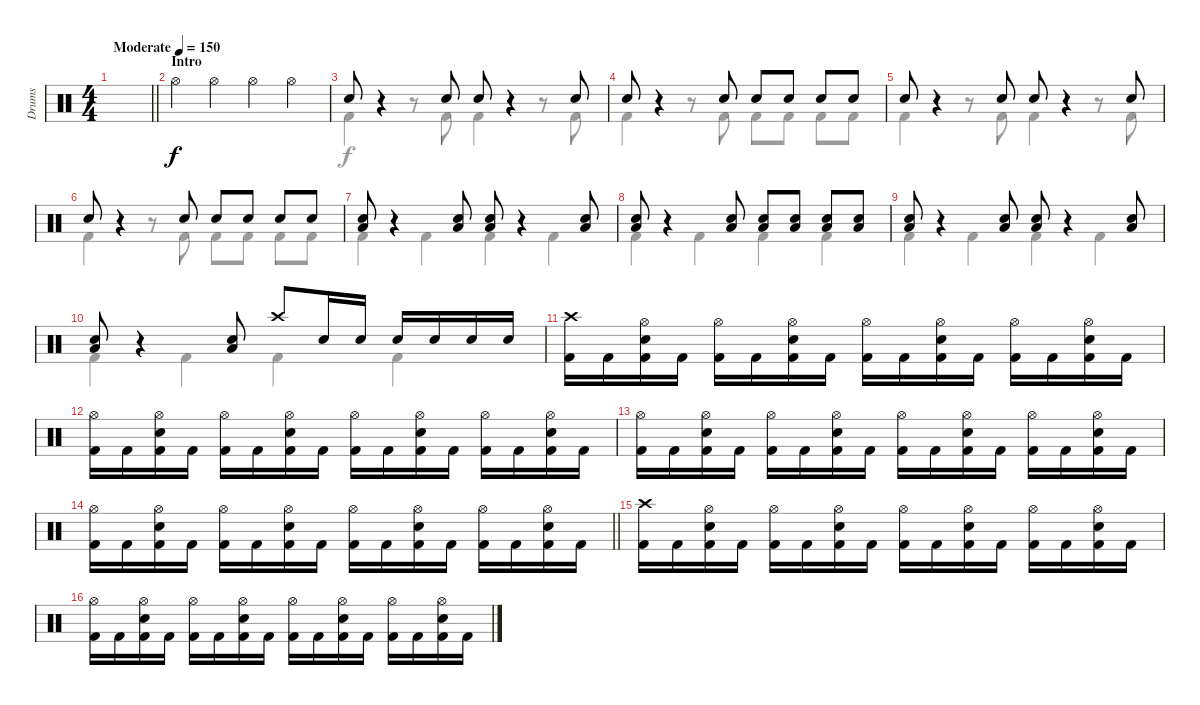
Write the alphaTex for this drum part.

\track ("Drums" "Drums") {instrument percussion}
\staff {score}
\articulation defaults
\voice
\ts (4 4)
\tempo (150 "Moderate")
\clef neutral
\barLineRight lightlight
\ks c
|
\section ("" "Intro")
"Hi-Hat (open)".4 "Hi-Hat (open)".4 "Hi-Hat (open)".4 "Hi-Hat (open)".4 |
"Snare (hit) 2".8 r.4 "Snare (hit) 2".8 "Snare (hit) 2".8 r.4 "Snare (hit) 2".8 |
"Snare (hit) 2".8 r.4 "Snare (hit) 2".8 "Snare (hit) 2".8 "Snare (hit) 2".8 "Snare (hit) 2".8 "Snare (hit) 2".8 |
"Snare (hit) 2".8 r.4 "Snare (hit) 2".8 "Snare (hit) 2".8 r.4 "Snare (hit) 2".8 |
"Snare (hit) 2".8 r.4 "Snare (hit) 2".8 "Snare (hit) 2".8 "Snare (hit) 2".8 "Snare (hit) 2".8 "Snare (hit) 2".8 |
("Low Tom (hit)" "Snare (hit) 2").8 r.4 ("Low Tom (hit)" "Snare (hit) 2").8 ("Low Tom (hit)" "Snare (hit) 2").8 r.4 ("Low Tom (hit)" "Snare (hit) 2").8 |
("Low Tom (hit)" "Snare (hit) 2").8 r.4 ("Low Tom (hit)" "Snare (hit) 2").8 ("Low Tom (hit)" "Snare (hit) 2").8 ("Low Tom (hit)" "Snare (hit) 2").8 ("Low Tom (hit)" "Snare (hit) 2").8 ("Low Tom (hit)" "Snare (hit) 2").8 |
("Low Tom (hit)" "Snare (hit) 2").8 r.4 ("Low Tom (hit)" "Snare (hit) 2").8 ("Low Tom (hit)" "Snare (hit) 2").8 r.4 ("Low Tom (hit)" "Snare (hit) 2").8 |
("Low Tom (hit)" "Snare (hit) 2").8 r.4 ("Low Tom (hit)" "Snare (hit) 2").8 "Crash high (hit)".8 "Snare (hit) 2".16 "Snare (hit) 2".16 "Snare (hit) 2".16 "Snare (hit) 2".16 "Snare (hit) 2".16 "Snare (hit) 2".16 |
("Crash high (hit)" "Kick (hit) 2").16 "Kick (hit) 2".16 ("Hi-Hat (open)" "Electric Snare (hit)" "Kick (hit) 2").16 "Kick (hit) 2".16 ("Hi-Hat (open)" "Kick (hit) 2").16 "Kick (hit) 2".16 ("Hi-Hat (open)" "Electric Snare (hit)" "Kick (hit) 2").16 "Kick (hit) 2".16 ("Hi-Hat (open)" "Kick (hit) 2").16 "Kick (hit) 2".16 ("Hi-Hat (open)" "Electric Snare (hit)" "Kick (hit) 2").16 "Kick (hit) 2".16 ("Hi-Hat (open)" "Kick (hit) 2").16 "Kick (hit) 2".16 ("Hi-Hat (open)" "Electric Snare (hit)" "Kick (hit) 2").16 "Kick (hit) 2".16 |
("Hi-Hat (open)" "Kick (hit) 2").16 "Kick (hit) 2".16 ("Hi-Hat (open)" "Electric Snare (hit)" "Kick (hit) 2").16 "Kick (hit) 2".16 ("Hi-Hat (open)" "Kick (hit) 2").16 "Kick (hit) 2".16 ("Hi-Hat (open)" "Electric Snare (hit)" "Kick (hit) 2").16 "Kick (hit) 2".16 ("Hi-Hat (open)" "Kick (hit) 2").16 "Kick (hit) 2".16 ("Hi-Hat (open)" "Electric Snare (hit)" "Kick (hit) 2").16 "Kick (hit) 2".16 ("Hi-Hat (open)" "Kick (hit) 2").16 "Kick (hit) 2".16 ("Hi-Hat (open)" "Electric Snare (hit)" "Kick (hit) 2").16 "Kick (hit) 2".16 |
("Hi-Hat (open)" "Kick (hit) 2").16 "Kick (hit) 2".16 ("Hi-Hat (open)" "Electric Snare (hit)" "Kick (hit) 2").16 "Kick (hit) 2".16 ("Hi-Hat (open)" "Kick (hit) 2").16 "Kick (hit) 2".16 ("Hi-Hat (open)" "Electric Snare (hit)" "Kick (hit) 2").16 "Kick (hit) 2".16 ("Hi-Hat (open)" "Kick (hit) 2").16 "Kick (hit) 2".16 ("Hi-Hat (open)" "Electric Snare (hit)" "Kick (hit) 2").16 "Kick (hit) 2".16 ("Hi-Hat (open)" "Kick (hit) 2").16 "Kick (hit) 2".16 ("Hi-Hat (open)" "Electric Snare (hit)" "Kick (hit) 2").16 "Kick (hit) 2".16 |
\barLineRight lightlight
("Hi-Hat (open)" "Kick (hit) 2").16 "Kick (hit) 2".16 ("Hi-Hat (open)" "Electric Snare (hit)" "Kick (hit) 2").16 "Kick (hit) 2".16 ("Hi-Hat (open)" "Kick (hit) 2").16 "Kick (hit) 2".16 ("Hi-Hat (open)" "Electric Snare (hit)" "Kick (hit) 2").16 "Kick (hit) 2".16 ("Hi-Hat (open)" "Kick (hit) 2").16 "Kick (hit) 2".16 ("Hi-Hat (open)" "Electric Snare (hit)" "Kick (hit) 2").16 "Kick (hit) 2".16 ("Hi-Hat (open)" "Kick (hit) 2").16 "Kick (hit) 2".16 ("Hi-Hat (open)" "Electric Snare (hit)" "Kick (hit) 2").16 "Kick (hit) 2".16 |
("Crash high (hit)" "Kick (hit) 2").16 "Kick (hit) 2".16 ("Hi-Hat (open)" "Electric Snare (hit)" "Kick (hit) 2").16 "Kick (hit) 2".16 ("Hi-Hat (open)" "Kick (hit) 2").16 "Kick (hit) 2".16 ("Hi-Hat (open)" "Electric Snare (hit)" "Kick (hit) 2").16 "Kick (hit) 2".16 ("Hi-Hat (open)" "Kick (hit) 2").16 "Kick (hit) 2".16 ("Hi-Hat (open)" "Electric Snare (hit)" "Kick (hit) 2").16 "Kick (hit) 2".16 ("Hi-Hat (open)" "Kick (hit) 2").16 "Kick (hit) 2".16 ("Hi-Hat (open)" "Electric Snare (hit)" "Kick (hit) 2").16 "Kick (hit) 2".16 |
("Hi-Hat (open)" "Kick (hit) 2").16 "Kick (hit) 2".16 ("Hi-Hat (open)" "Electric Snare (hit)" "Kick (hit) 2").16 "Kick (hit) 2".16 ("Hi-Hat (open)" "Kick (hit) 2").16 "Kick (hit) 2".16 ("Hi-Hat (open)" "Electric Snare (hit)" "Kick (hit) 2").16 "Kick (hit) 2".16 ("Hi-Hat (open)" "Kick (hit) 2").16 "Kick (hit) 2".16 ("Hi-Hat (open)" "Electric Snare (hit)" "Kick (hit) 2").16 "Kick (hit) 2".16 ("Hi-Hat (open)" "Kick (hit) 2").16 "Kick (hit) 2".16 ("Hi-Hat (open)" "Electric Snare (hit)" "Kick (hit) 2").16 "Kick (hit) 2".16
\voice
\clef neutral
\ottava regular
\simile none
\barLineRight lightlight
\ks c
|
|
"Kick (hit) 2".4 r.8 "Kick (hit) 2".8 "Kick (hit) 2".4 r.8 "Kick (hit) 2".8 |
"Kick (hit) 2".4 r.8 "Kick (hit) 2".8 "Kick (hit) 2".8 "Kick (hit) 2".8 "Kick (hit) 2".8 "Kick (hit) 2".8 |
"Kick (hit) 2".4 r.8 "Kick (hit) 2".8 "Kick (hit) 2".4 r.8 "Kick (hit) 2".8 |
"Kick (hit) 2".4 r.8 "Kick (hit) 2".8 "Kick (hit) 2".8 "Kick (hit) 2".8 "Kick (hit) 2".8 "Kick (hit) 2".8 |
"Kick (hit) 2".4 "Kick (hit) 2".4 "Kick (hit) 2".4 "Kick (hit) 2".4 |
"Kick (hit) 2".4 "Kick (hit) 2".4 "Kick (hit) 2".4 "Kick (hit) 2".4 |
"Kick (hit) 2".4 "Kick (hit) 2".4 "Kick (hit) 2".4 "Kick (hit) 2".4 |
"Kick (hit) 2".4 "Kick (hit) 2".4 "Kick (hit) 2".4 "Kick (hit) 2".4 |
|
|
|
\barLineRight lightlight
|
|
